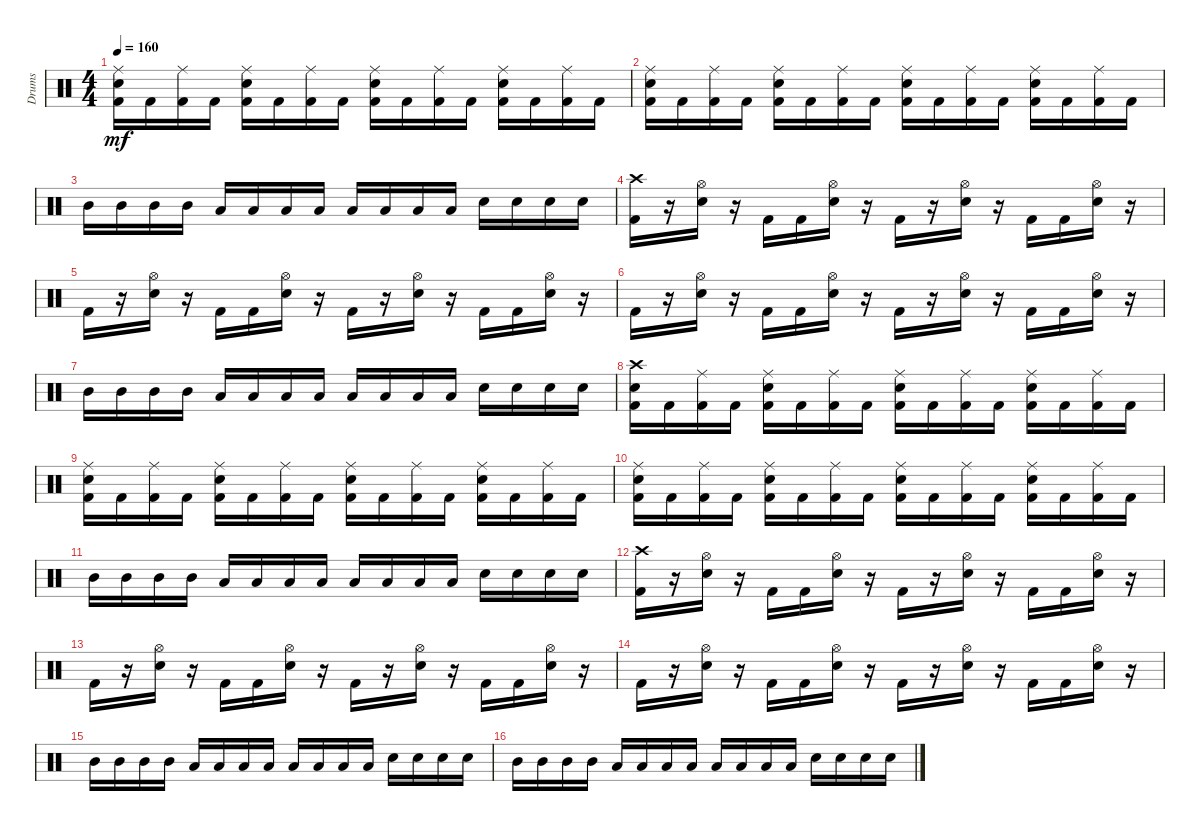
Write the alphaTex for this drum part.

\track ("Drums               " "Drums     ") {instrument percussion}
\staff {score}
\articulation defaults
\ts (4 4)
\tempo 160
\clef neutral
\ks c
("Kick (hit) 2" "Snare (hit) 2" "Ride (middle)").16{dy mf} "Kick (hit) 2".16 ("Kick (hit) 2" "Ride (middle)").16 "Kick (hit) 2".16 ("Kick (hit) 2" "Snare (hit) 2" "Ride (middle)").16 "Kick (hit) 2".16 ("Kick (hit) 2" "Ride (middle)").16 "Kick (hit) 2".16 ("Kick (hit) 2" "Snare (hit) 2" "Ride (middle)").16 "Kick (hit) 2".16 ("Kick (hit) 2" "Ride (middle)").16 "Kick (hit) 2".16 ("Kick (hit) 2" "Snare (hit) 2" "Ride (middle)").16 "Kick (hit) 2".16 ("Kick (hit) 2" "Ride (middle)").16 "Kick (hit) 2".16 |
("Kick (hit) 2" "Snare (hit) 2" "Ride (middle)").16 "Kick (hit) 2".16 ("Kick (hit) 2" "Ride (middle)").16 "Kick (hit) 2".16 ("Kick (hit) 2" "Snare (hit) 2" "Ride (middle)").16 "Kick (hit) 2".16 ("Kick (hit) 2" "Ride (middle)").16 "Kick (hit) 2".16 ("Kick (hit) 2" "Snare (hit) 2" "Ride (middle)").16 "Kick (hit) 2".16 ("Kick (hit) 2" "Ride (middle)").16 "Kick (hit) 2".16 ("Kick (hit) 2" "Snare (hit) 2" "Ride (middle)").16 "Kick (hit) 2".16 ("Kick (hit) 2" "Ride (middle)").16 "Kick (hit) 2".16 |
"Mid Tom (hit)".16 "Mid Tom (hit)".16 "Mid Tom (hit)".16 "Mid Tom (hit)".16 "Low Floor Tom (hit)".16 "Low Floor Tom (hit)".16 "Low Floor Tom (hit)".16 "Low Floor Tom (hit)".16 "Low Tom (hit)".16 "Low Tom (hit)".16 "Low Tom (hit)".16 "Low Tom (hit)".16 "Snare (hit) 2".16 "Snare (hit) 2".16 "Snare (hit) 2".16 "Snare (hit) 2".16 |
("Crash high (hit)" "Kick (hit) 2").16 r.16 ("Snare (hit) 2" "Hi-Hat (open)").16 r.16 "Kick (hit) 2".16 "Kick (hit) 2".16 ("Snare (hit) 2" "Hi-Hat (open)").16 r.16 "Kick (hit) 2".16 r.16 ("Snare (hit) 2" "Hi-Hat (open)").16 r.16 "Kick (hit) 2".16 "Kick (hit) 2".16 ("Snare (hit) 2" "Hi-Hat (open)").16 r.16 |
"Kick (hit) 2".16 r.16 ("Snare (hit) 2" "Hi-Hat (open)").16 r.16 "Kick (hit) 2".16 "Kick (hit) 2".16 ("Snare (hit) 2" "Hi-Hat (open)").16 r.16 "Kick (hit) 2".16 r.16 ("Snare (hit) 2" "Hi-Hat (open)").16 r.16 "Kick (hit) 2".16 "Kick (hit) 2".16 ("Snare (hit) 2" "Hi-Hat (open)").16 r.16 |
"Kick (hit) 2".16 r.16 ("Snare (hit) 2" "Hi-Hat (open)").16 r.16 "Kick (hit) 2".16 "Kick (hit) 2".16 ("Snare (hit) 2" "Hi-Hat (open)").16 r.16 "Kick (hit) 2".16 r.16 ("Snare (hit) 2" "Hi-Hat (open)").16 r.16 "Kick (hit) 2".16 "Kick (hit) 2".16 ("Snare (hit) 2" "Hi-Hat (open)").16 r.16 |
"Mid Tom (hit)".16 "Mid Tom (hit)".16 "Mid Tom (hit)".16 "Mid Tom (hit)".16 "Low Floor Tom (hit)".16 "Low Floor Tom (hit)".16 "Low Floor Tom (hit)".16 "Low Floor Tom (hit)".16 "Low Tom (hit)".16 "Low Tom (hit)".16 "Low Tom (hit)".16 "Low Tom (hit)".16 "Snare (hit) 2".16 "Snare (hit) 2".16 "Snare (hit) 2".16 "Snare (hit) 2".16 |
("Crash high (hit)" "Kick (hit) 2" "Snare (hit) 2").16 "Kick (hit) 2".16 ("Kick (hit) 2" "Ride (middle)").16 "Kick (hit) 2".16 ("Kick (hit) 2" "Snare (hit) 2" "Ride (middle)").16 "Kick (hit) 2".16 ("Kick (hit) 2" "Ride (middle)").16 "Kick (hit) 2".16 ("Kick (hit) 2" "Snare (hit) 2" "Ride (middle)").16 "Kick (hit) 2".16 ("Kick (hit) 2" "Ride (middle)").16 "Kick (hit) 2".16 ("Kick (hit) 2" "Snare (hit) 2" "Ride (middle)").16 "Kick (hit) 2".16 ("Kick (hit) 2" "Ride (middle)").16 "Kick (hit) 2".16 |
("Kick (hit) 2" "Snare (hit) 2" "Ride (middle)").16 "Kick (hit) 2".16 ("Kick (hit) 2" "Ride (middle)").16 "Kick (hit) 2".16 ("Kick (hit) 2" "Snare (hit) 2" "Ride (middle)").16 "Kick (hit) 2".16 ("Kick (hit) 2" "Ride (middle)").16 "Kick (hit) 2".16 ("Kick (hit) 2" "Snare (hit) 2" "Ride (middle)").16 "Kick (hit) 2".16 ("Kick (hit) 2" "Ride (middle)").16 "Kick (hit) 2".16 ("Kick (hit) 2" "Snare (hit) 2" "Ride (middle)").16 "Kick (hit) 2".16 ("Kick (hit) 2" "Ride (middle)").16 "Kick (hit) 2".16 |
("Kick (hit) 2" "Snare (hit) 2" "Ride (middle)").16 "Kick (hit) 2".16 ("Kick (hit) 2" "Ride (middle)").16 "Kick (hit) 2".16 ("Kick (hit) 2" "Snare (hit) 2" "Ride (middle)").16 "Kick (hit) 2".16 ("Kick (hit) 2" "Ride (middle)").16 "Kick (hit) 2".16 ("Kick (hit) 2" "Snare (hit) 2" "Ride (middle)").16 "Kick (hit) 2".16 ("Kick (hit) 2" "Ride (middle)").16 "Kick (hit) 2".16 ("Kick (hit) 2" "Snare (hit) 2" "Ride (middle)").16 "Kick (hit) 2".16 ("Kick (hit) 2" "Ride (middle)").16 "Kick (hit) 2".16 |
"Mid Tom (hit)".16 "Mid Tom (hit)".16 "Mid Tom (hit)".16 "Mid Tom (hit)".16 "Low Floor Tom (hit)".16 "Low Floor Tom (hit)".16 "Low Floor Tom (hit)".16 "Low Floor Tom (hit)".16 "Low Tom (hit)".16 "Low Tom (hit)".16 "Low Tom (hit)".16 "Low Tom (hit)".16 "Snare (hit) 2".16 "Snare (hit) 2".16 "Snare (hit) 2".16 "Snare (hit) 2".16 |
("Crash high (hit)" "Kick (hit) 2").16 r.16 ("Snare (hit) 2" "Hi-Hat (open)").16 r.16 "Kick (hit) 2".16 "Kick (hit) 2".16 ("Snare (hit) 2" "Hi-Hat (open)").16 r.16 "Kick (hit) 2".16 r.16 ("Snare (hit) 2" "Hi-Hat (open)").16 r.16 "Kick (hit) 2".16 "Kick (hit) 2".16 ("Snare (hit) 2" "Hi-Hat (open)").16 r.16 |
"Kick (hit) 2".16 r.16 ("Snare (hit) 2" "Hi-Hat (open)").16 r.16 "Kick (hit) 2".16 "Kick (hit) 2".16 ("Snare (hit) 2" "Hi-Hat (open)").16 r.16 "Kick (hit) 2".16 r.16 ("Snare (hit) 2" "Hi-Hat (open)").16 r.16 "Kick (hit) 2".16 "Kick (hit) 2".16 ("Snare (hit) 2" "Hi-Hat (open)").16 r.16 |
"Kick (hit) 2".16 r.16 ("Snare (hit) 2" "Hi-Hat (open)").16 r.16 "Kick (hit) 2".16 "Kick (hit) 2".16 ("Snare (hit) 2" "Hi-Hat (open)").16 r.16 "Kick (hit) 2".16 r.16 ("Snare (hit) 2" "Hi-Hat (open)").16 r.16 "Kick (hit) 2".16 "Kick (hit) 2".16 ("Snare (hit) 2" "Hi-Hat (open)").16 r.16 |
"Mid Tom (hit)".16 "Mid Tom (hit)".16 "Mid Tom (hit)".16 "Mid Tom (hit)".16 "Low Floor Tom (hit)".16 "Low Floor Tom (hit)".16 "Low Floor Tom (hit)".16 "Low Floor Tom (hit)".16 "Low Tom (hit)".16 "Low Tom (hit)".16 "Low Tom (hit)".16 "Low Tom (hit)".16 "Snare (hit) 2".16 "Snare (hit) 2".16 "Snare (hit) 2".16 "Snare (hit) 2".16 |
"Mid Tom (hit)".16 "Mid Tom (hit)".16 "Mid Tom (hit)".16 "Mid Tom (hit)".16 "Low Floor Tom (hit)".16 "Low Floor Tom (hit)".16 "Low Floor Tom (hit)".16 "Low Floor Tom (hit)".16 "Low Tom (hit)".16 "Low Tom (hit)".16 "Low Tom (hit)".16 "Low Tom (hit)".16 "Snare (hit) 2".16 "Snare (hit) 2".16 "Snare (hit) 2".16 "Snare (hit) 2".16
